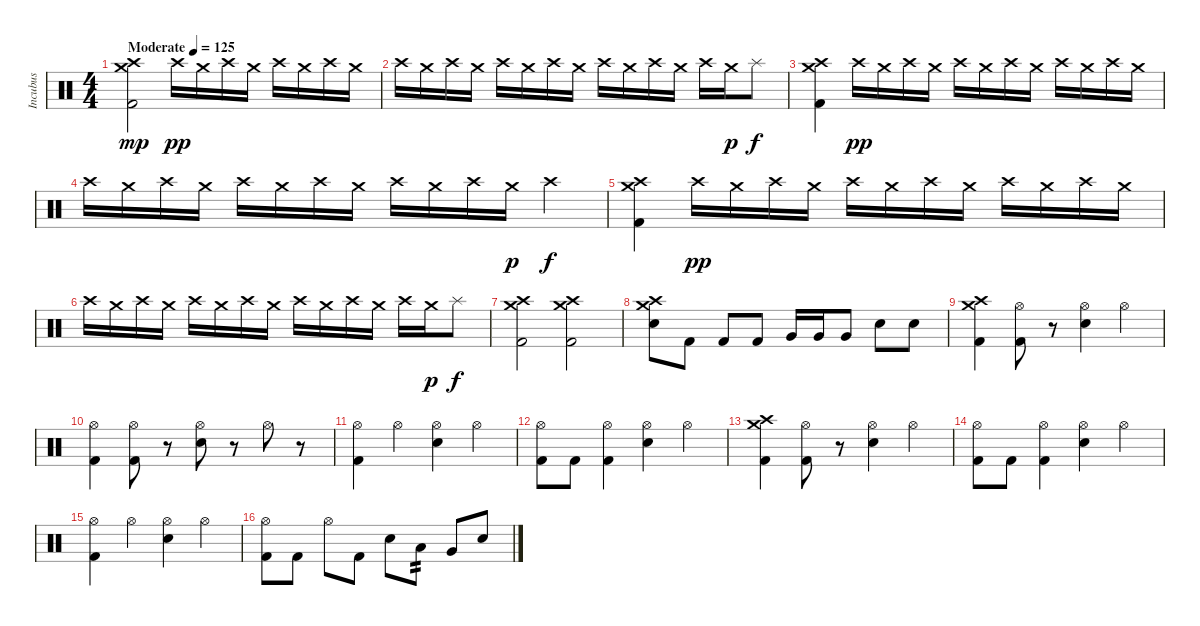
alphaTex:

\track ("Incubus" "Incubus") {instrument percussion}
\staff {score}
\articulation defaults
\ts (4 4)
\tempo (125 "Moderate")
\clef neutral
\ks c
("Crash high (hit)" "Crash medium (hit)" "Kick (hit) 2").2{dy mp} "Crash high (hit)".16{dy pp} "Crash medium (hit)".16 "Crash high (hit)".16 "Crash medium (hit)".16 "Crash high (hit)".16 "Crash medium (hit)".16 "Crash high (hit)".16 "Crash medium (hit)".16 |
"Crash high (hit)".16 "Crash medium (hit)".16 "Crash high (hit)".16 "Crash medium (hit)".16 "Crash high (hit)".16 "Crash medium (hit)".16 "Crash high (hit)".16 "Crash medium (hit)".16 "Crash high (hit)".16 "Crash medium (hit)".16 "Crash high (hit)".16 "Crash medium (hit)".16 "Crash high (hit)".16 "Crash medium (hit)".16{dy p} "Splash (hit)".8{dy f} |
("Crash high (hit)" "Crash medium (hit)" "Kick (hit) 2").4 "Crash high (hit)".16{dy pp} "Crash medium (hit)".16 "Crash high (hit)".16 "Crash medium (hit)".16 "Crash high (hit)".16 "Crash medium (hit)".16 "Crash high (hit)".16 "Crash medium (hit)".16 "Crash high (hit)".16 "Crash medium (hit)".16 "Crash high (hit)".16 "Crash medium (hit)".16 |
"Crash high (hit)".16 "Crash medium (hit)".16 "Crash high (hit)".16 "Crash medium (hit)".16 "Crash high (hit)".16 "Crash medium (hit)".16 "Crash high (hit)".16 "Crash medium (hit)".16 "Crash high (hit)".16 "Crash medium (hit)".16 "Crash high (hit)".16 "Crash medium (hit)".16{dy p} "Crash high (hit)".4{dy f} |
("Crash high (hit)" "Crash medium (hit)" "Kick (hit) 2").4 "Crash high (hit)".16{dy pp} "Crash medium (hit)".16 "Crash high (hit)".16 "Crash medium (hit)".16 "Crash high (hit)".16 "Crash medium (hit)".16 "Crash high (hit)".16 "Crash medium (hit)".16 "Crash high (hit)".16 "Crash medium (hit)".16 "Crash high (hit)".16 "Crash medium (hit)".16 |
"Crash high (hit)".16 "Crash medium (hit)".16 "Crash high (hit)".16 "Crash medium (hit)".16 "Crash high (hit)".16 "Crash medium (hit)".16 "Crash high (hit)".16 "Crash medium (hit)".16 "Crash high (hit)".16 "Crash medium (hit)".16 "Crash high (hit)".16 "Crash medium (hit)".16 "Crash high (hit)".16 "Crash medium (hit)".16{dy p} "Splash (hit)".8{dy f} |
("Crash high (hit)" "Crash medium (hit)" "Kick (hit) 2").2 ("Crash high (hit)" "Crash medium (hit)" "Kick (hit) 2").2 |
("Crash high (hit)" "Crash medium (hit)" "Snare (hit) 2").8 "Kick (hit) 2".8 "Kick (hit) 2".8 "Kick (hit) 2".8 "Very Low Tom (hit)".16 "Very Low Tom (hit)".16 "Very Low Tom (hit)".8 "Electric Snare (hit)".8 "Snare (hit) 2".8 |
("Crash high (hit)" "Crash medium (hit)" "Kick (hit) 2").4 ("Hi-Hat (open)" "Kick (hit) 2").8 r.8 ("Hi-Hat (open)" "Snare (hit) 2").4 "Hi-Hat (open)".4 |
("Hi-Hat (open)" "Kick (hit) 2").4 ("Hi-Hat (open)" "Kick (hit) 2").8 r.8 ("Hi-Hat (open)" "Snare (hit) 2").8 r.8 "Hi-Hat (open)".8 r.8 |
("Hi-Hat (open)" "Kick (hit) 2").4 "Hi-Hat (open)".4 ("Hi-Hat (open)" "Snare (hit) 2").4 "Hi-Hat (open)".4 |
("Hi-Hat (open)" "Kick (hit) 2").8 "Kick (hit) 2".8 ("Hi-Hat (open)" "Kick (hit) 2").4 ("Hi-Hat (open)" "Snare (hit) 2").4 "Hi-Hat (open)".4 |
("Crash high (hit)" "Crash medium (hit)" "Kick (hit) 2").4 ("Hi-Hat (open)" "Kick (hit) 2").8 r.8 ("Hi-Hat (open)" "Snare (hit) 2").4 "Hi-Hat (open)".4 |
("Hi-Hat (open)" "Kick (hit) 2").8 "Kick (hit) 2".8 ("Hi-Hat (open)" "Kick (hit) 2").4 ("Hi-Hat (open)" "Snare (hit) 2").4 "Hi-Hat (open)".4 |
("Hi-Hat (open)" "Kick (hit) 2").4 "Hi-Hat (open)".4 ("Hi-Hat (open)" "Snare (hit) 2").4 "Hi-Hat (open)".4 |
("Hi-Hat (open)" "Kick (hit) 2").8 "Kick (hit) 2".8 "Hi-Hat (open)".8 "Kick (hit) 2".8 "Snare (hit) 2".8 "Low Floor Tom (hit)".8{tp 2} "Very Low Tom (hit)".8 "Snare (hit) 2".8
